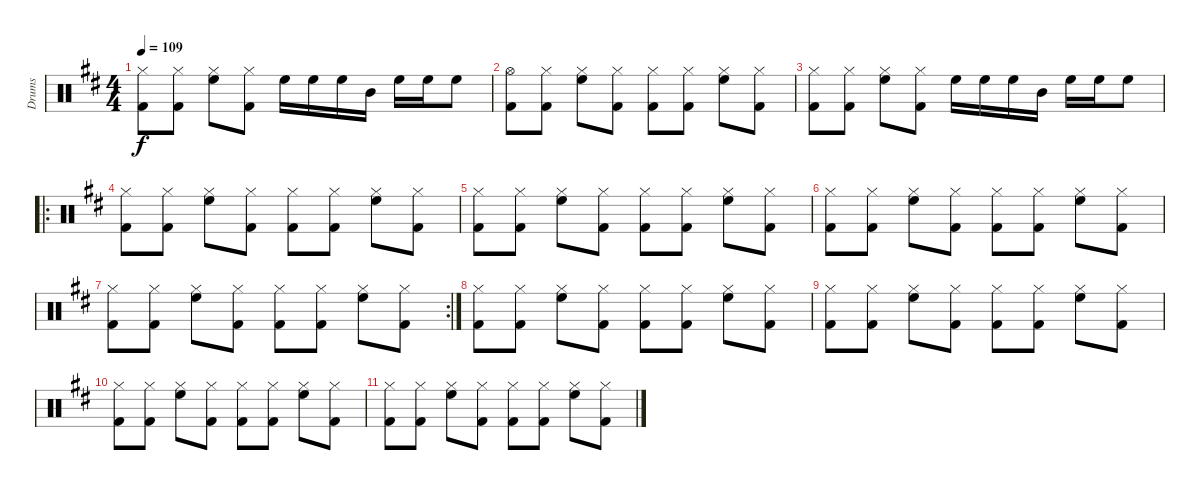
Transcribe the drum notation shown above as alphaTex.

\track ("Drums" "Drums") {instrument percussion}
\staff {score}
\articulation defaults
\ts (4 4)
\tempo 109
\clef neutral
\ks d
("Hi-Hat (closed)" "Kick (hit) 2").8{dy f} ("Hi-Hat (closed)" "Kick (hit) 2").8 ("Hi-Hat (closed)" "High Floor Tom (hit)").8 ("Hi-Hat (closed)" "Kick (hit) 2").8 "High Floor Tom (hit)".16 "High Floor Tom (hit)".16 "High Floor Tom (hit)".16 "Mid Tom (hit)".16 "High Floor Tom (hit)".16 "High Floor Tom (hit)".16 "High Floor Tom (hit)".8 |
("Hi-Hat (open)" "Kick (hit) 2").8 ("Hi-Hat (closed)" "Kick (hit) 2").8 ("Hi-Hat (closed)" "High Floor Tom (hit)").8 ("Hi-Hat (closed)" "Kick (hit) 2").8 ("Hi-Hat (closed)" "Kick (hit) 2").8 ("Hi-Hat (closed)" "Kick (hit) 2").8 ("Hi-Hat (closed)" "High Floor Tom (hit)").8 ("Hi-Hat (closed)" "Kick (hit) 2").8 |
("Hi-Hat (closed)" "Kick (hit) 2").8 ("Hi-Hat (closed)" "Kick (hit) 2").8 ("Hi-Hat (closed)" "High Floor Tom (hit)").8 ("Hi-Hat (closed)" "Kick (hit) 2").8 "High Floor Tom (hit)".16 "High Floor Tom (hit)".16 "High Floor Tom (hit)".16 "Mid Tom (hit)".16 "High Floor Tom (hit)".16 "High Floor Tom (hit)".16 "High Floor Tom (hit)".8 |
\ro
("Hi-Hat (closed)" "Kick (hit) 2").8 ("Hi-Hat (closed)" "Kick (hit) 2").8 ("Hi-Hat (closed)" "High Floor Tom (hit)").8 ("Hi-Hat (closed)" "Kick (hit) 2").8 ("Hi-Hat (closed)" "Kick (hit) 2").8 ("Hi-Hat (closed)" "Kick (hit) 2").8 ("Hi-Hat (closed)" "High Floor Tom (hit)").8 ("Hi-Hat (closed)" "Kick (hit) 2").8 |
("Hi-Hat (closed)" "Kick (hit) 2").8 ("Hi-Hat (closed)" "Kick (hit) 2").8 ("Hi-Hat (closed)" "High Floor Tom (hit)").8 ("Hi-Hat (closed)" "Kick (hit) 2").8 ("Hi-Hat (closed)" "Kick (hit) 2").8 ("Hi-Hat (closed)" "Kick (hit) 2").8 ("Hi-Hat (closed)" "High Floor Tom (hit)").8 ("Hi-Hat (closed)" "Kick (hit) 2").8 |
("Hi-Hat (closed)" "Kick (hit) 2").8 ("Hi-Hat (closed)" "Kick (hit) 2").8 ("Hi-Hat (closed)" "High Floor Tom (hit)").8 ("Hi-Hat (closed)" "Kick (hit) 2").8 ("Hi-Hat (closed)" "Kick (hit) 2").8 ("Hi-Hat (closed)" "Kick (hit) 2").8 ("Hi-Hat (closed)" "High Floor Tom (hit)").8 ("Hi-Hat (closed)" "Kick (hit) 2").8 |
\rc 2
("Hi-Hat (closed)" "Kick (hit) 2").8 ("Hi-Hat (closed)" "Kick (hit) 2").8 ("Hi-Hat (closed)" "High Floor Tom (hit)").8 ("Hi-Hat (closed)" "Kick (hit) 2").8 ("Hi-Hat (closed)" "Kick (hit) 2").8 ("Hi-Hat (closed)" "Kick (hit) 2").8 ("Hi-Hat (closed)" "High Floor Tom (hit)").8 ("Hi-Hat (closed)" "Kick (hit) 2").8 |
("Hi-Hat (closed)" "Kick (hit) 2").8 ("Hi-Hat (closed)" "Kick (hit) 2").8 ("Hi-Hat (closed)" "High Floor Tom (hit)").8 ("Hi-Hat (closed)" "Kick (hit) 2").8 ("Hi-Hat (closed)" "Kick (hit) 2").8 ("Hi-Hat (closed)" "Kick (hit) 2").8 ("Hi-Hat (closed)" "High Floor Tom (hit)").8 ("Hi-Hat (closed)" "Kick (hit) 2").8 |
("Hi-Hat (closed)" "Kick (hit) 2").8 ("Hi-Hat (closed)" "Kick (hit) 2").8 ("Hi-Hat (closed)" "High Floor Tom (hit)").8 ("Hi-Hat (closed)" "Kick (hit) 2").8 ("Hi-Hat (closed)" "Kick (hit) 2").8 ("Hi-Hat (closed)" "Kick (hit) 2").8 ("Hi-Hat (closed)" "High Floor Tom (hit)").8 ("Hi-Hat (closed)" "Kick (hit) 2").8 |
("Hi-Hat (closed)" "Kick (hit) 2").8 ("Hi-Hat (closed)" "Kick (hit) 2").8 ("Hi-Hat (closed)" "High Floor Tom (hit)").8 ("Hi-Hat (closed)" "Kick (hit) 2").8 ("Hi-Hat (closed)" "Kick (hit) 2").8 ("Hi-Hat (closed)" "Kick (hit) 2").8 ("Hi-Hat (closed)" "High Floor Tom (hit)").8 ("Hi-Hat (closed)" "Kick (hit) 2").8 |
("Hi-Hat (closed)" "Kick (hit) 2").8 ("Hi-Hat (closed)" "Kick (hit) 2").8 ("Hi-Hat (closed)" "High Floor Tom (hit)").8 ("Hi-Hat (closed)" "Kick (hit) 2").8 ("Hi-Hat (closed)" "Kick (hit) 2").8 ("Hi-Hat (closed)" "Kick (hit) 2").8 ("Hi-Hat (closed)" "High Floor Tom (hit)").8 ("Hi-Hat (closed)" "Kick (hit) 2").8
